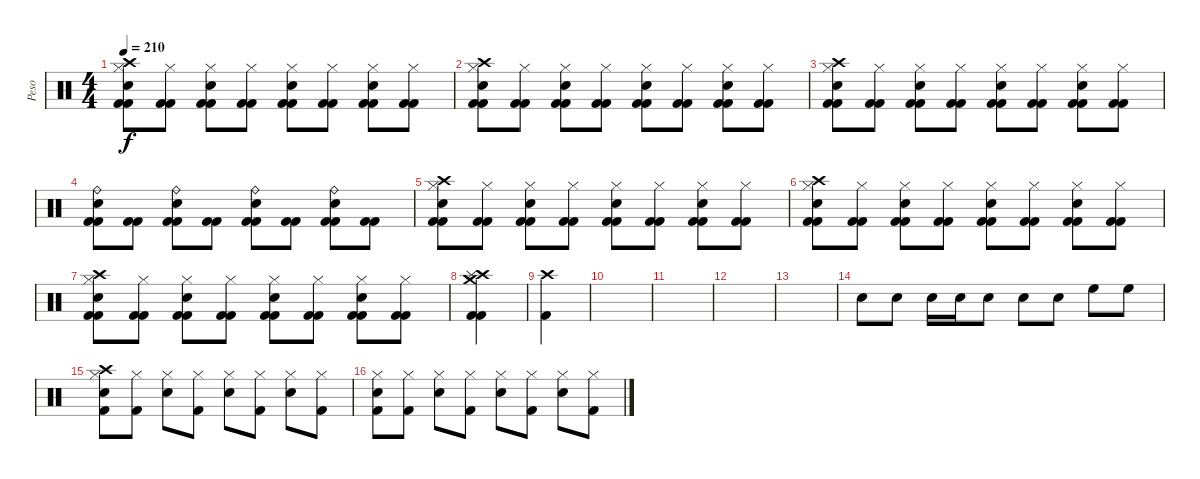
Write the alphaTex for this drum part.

\track ("Peso" "Peso") {instrument percussion}
\staff {score}
\articulation defaults
\ts (4 4)
\tempo 210
\clef neutral
\ks c
("Crash high (hit)" "Hi-Hat (closed)" "Snare (hit) 2" "Kick (hit) 2" "Kick (hit) 2").8{dy f} ("Hi-Hat (closed)" "Kick (hit) 2" "Kick (hit) 2").8 ("Hi-Hat (closed)" "Snare (hit) 2" "Kick (hit) 2" "Kick (hit) 2").8 ("Hi-Hat (closed)" "Kick (hit) 2" "Kick (hit) 2").8 ("Hi-Hat (closed)" "Snare (hit) 2" "Kick (hit) 2" "Kick (hit) 2").8 ("Hi-Hat (closed)" "Kick (hit) 2" "Kick (hit) 2").8 ("Hi-Hat (closed)" "Snare (hit) 2" "Kick (hit) 2" "Kick (hit) 2").8 ("Hi-Hat (closed)" "Kick (hit) 2" "Kick (hit) 2").8 |
("Crash high (hit)" "Hi-Hat (closed)" "Snare (hit) 2" "Kick (hit) 2" "Kick (hit) 2").8 ("Hi-Hat (closed)" "Kick (hit) 2" "Kick (hit) 2").8 ("Hi-Hat (closed)" "Snare (hit) 2" "Kick (hit) 2" "Kick (hit) 2").8 ("Hi-Hat (closed)" "Kick (hit) 2" "Kick (hit) 2").8 ("Hi-Hat (closed)" "Snare (hit) 2" "Kick (hit) 2" "Kick (hit) 2").8 ("Hi-Hat (closed)" "Kick (hit) 2" "Kick (hit) 2").8 ("Hi-Hat (closed)" "Snare (hit) 2" "Kick (hit) 2" "Kick (hit) 2").8 ("Hi-Hat (closed)" "Kick (hit) 2" "Kick (hit) 2").8 |
("Crash high (hit)" "Hi-Hat (closed)" "Snare (hit) 2" "Kick (hit) 2" "Kick (hit) 2").8 ("Hi-Hat (closed)" "Kick (hit) 2" "Kick (hit) 2").8 ("Hi-Hat (closed)" "Snare (hit) 2" "Kick (hit) 2" "Kick (hit) 2").8 ("Hi-Hat (closed)" "Kick (hit) 2" "Kick (hit) 2").8 ("Hi-Hat (closed)" "Snare (hit) 2" "Kick (hit) 2" "Kick (hit) 2").8 ("Hi-Hat (closed)" "Kick (hit) 2" "Kick (hit) 2").8 ("Hi-Hat (closed)" "Snare (hit) 2" "Kick (hit) 2" "Kick (hit) 2").8 ("Hi-Hat (closed)" "Kick (hit) 2" "Kick (hit) 2").8 |
("Ride (bell)" "Snare (hit) 2" "Kick (hit) 2" "Kick (hit) 2").8 ("Kick (hit) 2" "Kick (hit) 2").8 ("Ride (bell)" "Snare (hit) 2" "Kick (hit) 2" "Kick (hit) 2").8 ("Kick (hit) 2" "Kick (hit) 2").8 ("Ride (bell)" "Snare (hit) 2" "Kick (hit) 2" "Kick (hit) 2").8 ("Kick (hit) 2" "Kick (hit) 2").8 ("Ride (bell)" "Snare (hit) 2" "Kick (hit) 2" "Kick (hit) 2").8 ("Kick (hit) 2" "Kick (hit) 2").8 |
("Crash high (hit)" "Hi-Hat (closed)" "Snare (hit) 2" "Kick (hit) 2" "Kick (hit) 2").8 ("Hi-Hat (closed)" "Kick (hit) 2" "Kick (hit) 2").8 ("Hi-Hat (closed)" "Snare (hit) 2" "Kick (hit) 2" "Kick (hit) 2").8 ("Hi-Hat (closed)" "Kick (hit) 2" "Kick (hit) 2").8 ("Hi-Hat (closed)" "Snare (hit) 2" "Kick (hit) 2" "Kick (hit) 2").8 ("Hi-Hat (closed)" "Kick (hit) 2" "Kick (hit) 2").8 ("Hi-Hat (closed)" "Snare (hit) 2" "Kick (hit) 2" "Kick (hit) 2").8 ("Hi-Hat (closed)" "Kick (hit) 2" "Kick (hit) 2").8 |
("Crash high (hit)" "Hi-Hat (closed)" "Snare (hit) 2" "Kick (hit) 2" "Kick (hit) 2").8 ("Hi-Hat (closed)" "Kick (hit) 2" "Kick (hit) 2").8 ("Hi-Hat (closed)" "Snare (hit) 2" "Kick (hit) 2" "Kick (hit) 2").8 ("Hi-Hat (closed)" "Kick (hit) 2" "Kick (hit) 2").8 ("Hi-Hat (closed)" "Snare (hit) 2" "Kick (hit) 2" "Kick (hit) 2").8 ("Hi-Hat (closed)" "Kick (hit) 2" "Kick (hit) 2").8 ("Hi-Hat (closed)" "Snare (hit) 2" "Kick (hit) 2" "Kick (hit) 2").8 ("Hi-Hat (closed)" "Kick (hit) 2" "Kick (hit) 2").8 |
("Crash high (hit)" "Hi-Hat (closed)" "Snare (hit) 2" "Kick (hit) 2" "Kick (hit) 2").8 ("Hi-Hat (closed)" "Kick (hit) 2" "Kick (hit) 2").8 ("Hi-Hat (closed)" "Snare (hit) 2" "Kick (hit) 2" "Kick (hit) 2").8 ("Hi-Hat (closed)" "Kick (hit) 2" "Kick (hit) 2").8 ("Hi-Hat (closed)" "Snare (hit) 2" "Kick (hit) 2" "Kick (hit) 2").8 ("Hi-Hat (closed)" "Kick (hit) 2" "Kick (hit) 2").8 ("Hi-Hat (closed)" "Snare (hit) 2" "Kick (hit) 2" "Kick (hit) 2").8 ("Hi-Hat (closed)" "Kick (hit) 2" "Kick (hit) 2").8 |
("Crash high (hit)" "Splash (hit)" "Crash medium (hit)" "Kick (hit) 2" "Kick (hit) 2").4 |
("Crash high (hit)" "Kick (hit) 2").4 |
|
|
|
|
"Snare (hit) 2".8 "Snare (hit) 2".8 "Snare (hit) 2".16 "Snare (hit) 2".16 "Snare (hit) 2".8 "Snare (hit) 2".8 "Snare (hit) 2".8 "High Floor Tom (hit)".8 "High Floor Tom (hit)".8 |
("Crash high (hit)" "Hi-Hat (closed)" "Snare (hit) 2" "Kick (hit) 2").8 ("Hi-Hat (closed)" "Kick (hit) 2").8 ("Hi-Hat (closed)" "Snare (hit) 2").8 ("Hi-Hat (closed)" "Kick (hit) 2").8 ("Hi-Hat (closed)" "Snare (hit) 2").8 ("Hi-Hat (closed)" "Kick (hit) 2").8 ("Hi-Hat (closed)" "Snare (hit) 2").8 ("Hi-Hat (closed)" "Kick (hit) 2").8 |
("Hi-Hat (closed)" "Snare (hit) 2" "Kick (hit) 2").8 ("Hi-Hat (closed)" "Kick (hit) 2").8 ("Hi-Hat (closed)" "Snare (hit) 2").8 ("Hi-Hat (closed)" "Kick (hit) 2").8 ("Hi-Hat (closed)" "Snare (hit) 2").8 ("Hi-Hat (closed)" "Kick (hit) 2").8 ("Hi-Hat (closed)" "Snare (hit) 2").8 ("Hi-Hat (closed)" "Kick (hit) 2").8
